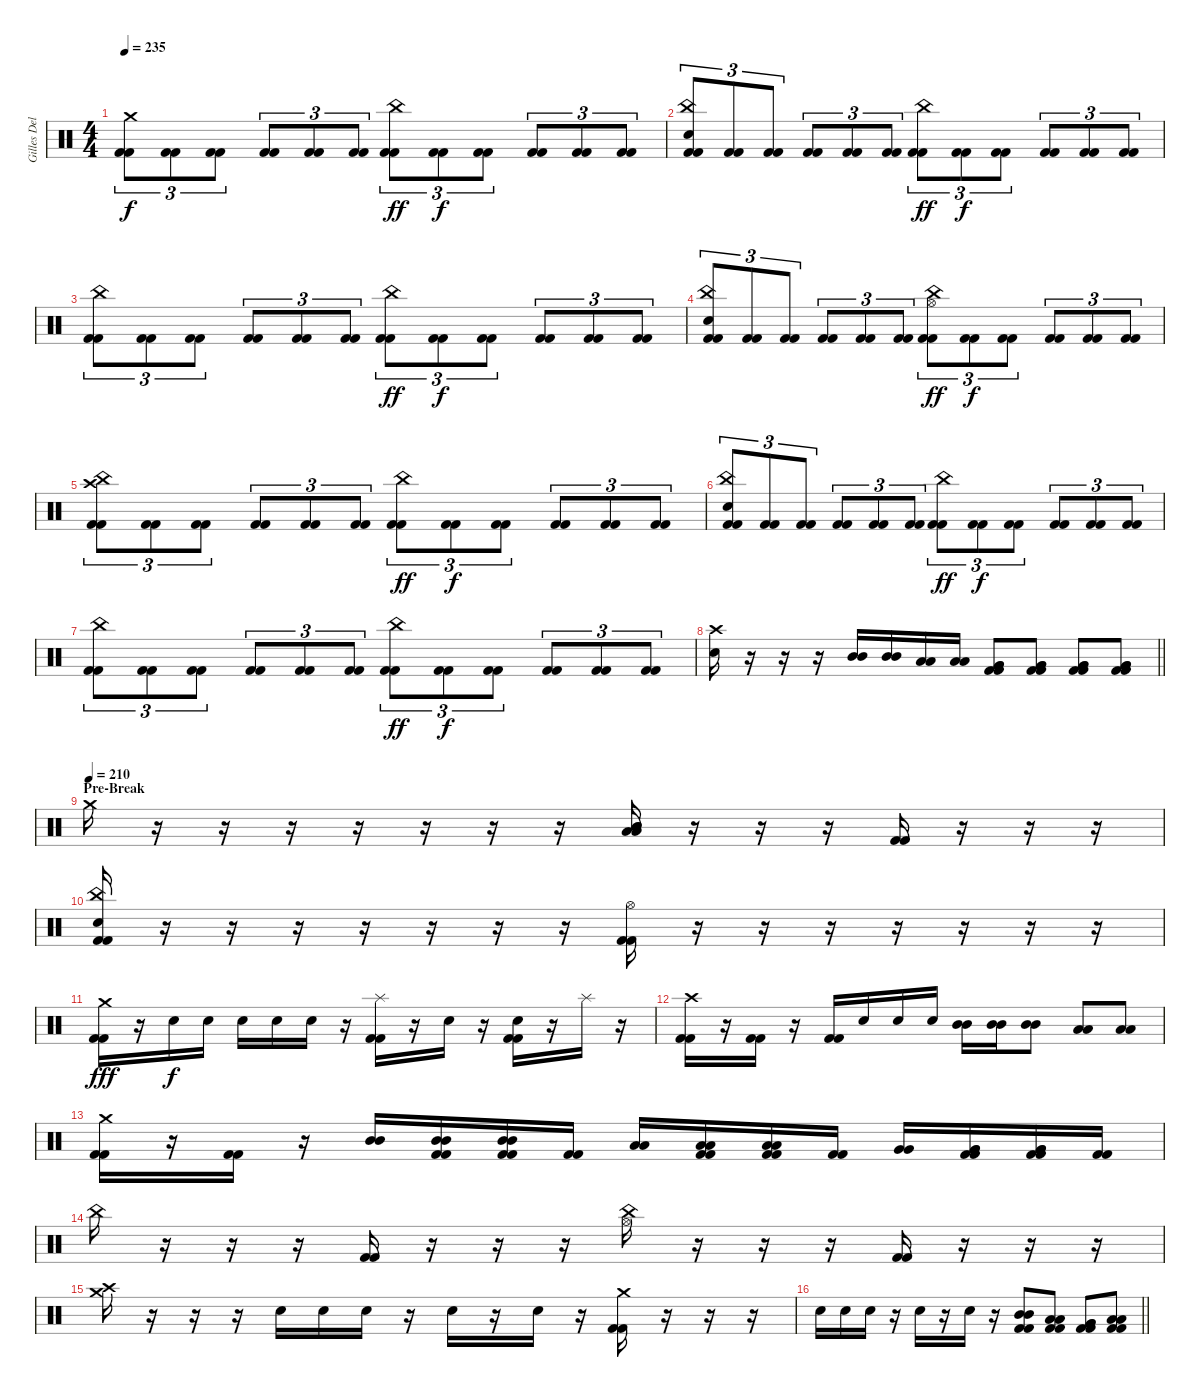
\track ("Gilles Delecroix" "Gilles Del") {instrument percussion}
\staff {score}
\articulation defaults
\ts (4 4)
\tempo 235
\clef neutral
\ks c
("Crash medium (hit)" "Kick (hit) 2" "Kick (hit) 2").8{tu (3 2) dy f} ("Kick (hit) 2" "Kick (hit) 2").8{tu (3 2)} ("Kick (hit) 2" "Kick (hit) 2").8{tu (3 2)} ("Kick (hit) 2" "Kick (hit) 2").8{tu (3 2)} ("Kick (hit) 2" "Kick (hit) 2").8{tu (3 2)} ("Kick (hit) 2" "Kick (hit) 2").8{tu (3 2)} ("China (hit)" "Kick (hit) 2" "Kick (hit) 2").8{tu (3 2) dy ff} ("Kick (hit) 2" "Kick (hit) 2").8{tu (3 2) dy f} ("Kick (hit) 2" "Kick (hit) 2").8{tu (3 2)} ("Kick (hit) 2" "Kick (hit) 2").8{tu (3 2)} ("Kick (hit) 2" "Kick (hit) 2").8{tu (3 2)} ("Kick (hit) 2" "Kick (hit) 2").8{tu (3 2)} |
("China (hit)" "Electric Snare (hit)" "Kick (hit) 2" "Kick (hit) 2").8{tu (3 2)} ("Kick (hit) 2" "Kick (hit) 2").8{tu (3 2)} ("Kick (hit) 2" "Kick (hit) 2").8{tu (3 2)} ("Kick (hit) 2" "Kick (hit) 2").8{tu (3 2)} ("Kick (hit) 2" "Kick (hit) 2").8{tu (3 2)} ("Kick (hit) 2" "Kick (hit) 2").8{tu (3 2)} ("China (hit)" "Kick (hit) 2" "Kick (hit) 2").8{tu (3 2) dy ff} ("Kick (hit) 2" "Kick (hit) 2").8{tu (3 2) dy f} ("Kick (hit) 2" "Kick (hit) 2").8{tu (3 2)} ("Kick (hit) 2" "Kick (hit) 2").8{tu (3 2)} ("Kick (hit) 2" "Kick (hit) 2").8{tu (3 2)} ("Kick (hit) 2" "Kick (hit) 2").8{tu (3 2)} |
("China (hit)" "Kick (hit) 2" "Kick (hit) 2").8{tu (3 2)} ("Kick (hit) 2" "Kick (hit) 2").8{tu (3 2)} ("Kick (hit) 2" "Kick (hit) 2").8{tu (3 2)} ("Kick (hit) 2" "Kick (hit) 2").8{tu (3 2)} ("Kick (hit) 2" "Kick (hit) 2").8{tu (3 2)} ("Kick (hit) 2" "Kick (hit) 2").8{tu (3 2)} ("China (hit)" "Kick (hit) 2" "Kick (hit) 2").8{tu (3 2) dy ff} ("Kick (hit) 2" "Kick (hit) 2").8{tu (3 2) dy f} ("Kick (hit) 2" "Kick (hit) 2").8{tu (3 2)} ("Kick (hit) 2" "Kick (hit) 2").8{tu (3 2)} ("Kick (hit) 2" "Kick (hit) 2").8{tu (3 2)} ("Kick (hit) 2" "Kick (hit) 2").8{tu (3 2)} |
("China (hit)" "Electric Snare (hit)" "Kick (hit) 2" "Kick (hit) 2").8{tu (3 2)} ("Kick (hit) 2" "Kick (hit) 2").8{tu (3 2)} ("Kick (hit) 2" "Kick (hit) 2").8{tu (3 2)} ("Kick (hit) 2" "Kick (hit) 2").8{tu (3 2)} ("Kick (hit) 2" "Kick (hit) 2").8{tu (3 2)} ("Kick (hit) 2" "Kick (hit) 2").8{tu (3 2)} ("Hi-Hat (open)" "China (hit)" "Kick (hit) 2" "Kick (hit) 2").8{tu (3 2) dy ff} ("Kick (hit) 2" "Kick (hit) 2").8{tu (3 2) dy f} ("Kick (hit) 2" "Kick (hit) 2").8{tu (3 2)} ("Kick (hit) 2" "Kick (hit) 2").8{tu (3 2)} ("Kick (hit) 2" "Kick (hit) 2").8{tu (3 2)} ("Kick (hit) 2" "Kick (hit) 2").8{tu (3 2)} |
("Crash high (hit)" "China (hit)" "Kick (hit) 2" "Kick (hit) 2").8{tu (3 2)} ("Kick (hit) 2" "Kick (hit) 2").8{tu (3 2)} ("Kick (hit) 2" "Kick (hit) 2").8{tu (3 2)} ("Kick (hit) 2" "Kick (hit) 2").8{tu (3 2)} ("Kick (hit) 2" "Kick (hit) 2").8{tu (3 2)} ("Kick (hit) 2" "Kick (hit) 2").8{tu (3 2)} ("China (hit)" "Kick (hit) 2" "Kick (hit) 2").8{tu (3 2) dy ff} ("Kick (hit) 2" "Kick (hit) 2").8{tu (3 2) dy f} ("Kick (hit) 2" "Kick (hit) 2").8{tu (3 2)} ("Kick (hit) 2" "Kick (hit) 2").8{tu (3 2)} ("Kick (hit) 2" "Kick (hit) 2").8{tu (3 2)} ("Kick (hit) 2" "Kick (hit) 2").8{tu (3 2)} |
("China (hit)" "Electric Snare (hit)" "Kick (hit) 2" "Kick (hit) 2").8{tu (3 2)} ("Kick (hit) 2" "Kick (hit) 2").8{tu (3 2)} ("Kick (hit) 2" "Kick (hit) 2").8{tu (3 2)} ("Kick (hit) 2" "Kick (hit) 2").8{tu (3 2)} ("Kick (hit) 2" "Kick (hit) 2").8{tu (3 2)} ("Kick (hit) 2" "Kick (hit) 2").8{tu (3 2)} ("China (hit)" "Kick (hit) 2" "Kick (hit) 2").8{tu (3 2) dy ff} ("Kick (hit) 2" "Kick (hit) 2").8{tu (3 2) dy f} ("Kick (hit) 2" "Kick (hit) 2").8{tu (3 2)} ("Kick (hit) 2" "Kick (hit) 2").8{tu (3 2)} ("Kick (hit) 2" "Kick (hit) 2").8{tu (3 2)} ("Kick (hit) 2" "Kick (hit) 2").8{tu (3 2)} |
("China (hit)" "Kick (hit) 2" "Kick (hit) 2").8{tu (3 2)} ("Kick (hit) 2" "Kick (hit) 2").8{tu (3 2)} ("Kick (hit) 2" "Kick (hit) 2").8{tu (3 2)} ("Kick (hit) 2" "Kick (hit) 2").8{tu (3 2)} ("Kick (hit) 2" "Kick (hit) 2").8{tu (3 2)} ("Kick (hit) 2" "Kick (hit) 2").8{tu (3 2)} ("China (hit)" "Kick (hit) 2" "Kick (hit) 2").8{tu (3 2) dy ff} ("Kick (hit) 2" "Kick (hit) 2").8{tu (3 2) dy f} ("Kick (hit) 2" "Kick (hit) 2").8{tu (3 2)} ("Kick (hit) 2" "Kick (hit) 2").8{tu (3 2)} ("Kick (hit) 2" "Kick (hit) 2").8{tu (3 2)} ("Kick (hit) 2" "Kick (hit) 2").8{tu (3 2)} |
\barLineRight lightlight
("Crash high (hit)" "Electric Snare (hit)").16 r.16 r.16 r.16 ("Mid Tom (hit)" "Mid Tom (hit)").16 ("Mid Tom (hit)" "Mid Tom (hit)").16 ("Low Tom (hit)" "Low Tom (hit)").16 ("Low Tom (hit)" "Low Tom (hit)").16 ("Very Low Tom (hit)" "Very Low Tom (hit)" "Kick (hit) 2" "Kick (hit) 2").8 ("Very Low Tom (hit)" "Very Low Tom (hit)" "Kick (hit) 2" "Kick (hit) 2").8 ("Very Low Tom (hit)" "Very Low Tom (hit)" "Kick (hit) 2" "Kick (hit) 2").8 ("Very Low Tom (hit)" "Very Low Tom (hit)" "Kick (hit) 2" "Kick (hit) 2").8 |
\section ("" "Pre-Break")
\tempo (210)
"Crash medium (hit)".16 r.16 r.16 r.16 r.16 r.16 r.16 r.16 ("Low Tom (hit)" "Low Tom (hit)" "Mid Tom (hit)" "Mid Tom (hit)").16 r.16 r.16 r.16 ("Kick (hit) 2" "Kick (hit) 2").16 r.16 r.16 r.16 |
("China (hit)" "Electric Snare (hit)" "Kick (hit) 2" "Kick (hit) 2").16 r.16 r.16 r.16 r.16 r.16 r.16 r.16 ("Hi-Hat (open)" "Kick (hit) 2" "Kick (hit) 2").16 r.16 r.16 r.16 r.16 r.16 r.16 r.16 |
("Crash medium (hit)" "Kick (hit) 2" "Kick (hit) 2").16{dy fff} r.16 "Electric Snare (hit)".16{dy f} "Electric Snare (hit)".16 "Electric Snare (hit)".16 "Electric Snare (hit)".16 "Electric Snare (hit)".16 r.16 ("Splash (hit)" "Kick (hit) 2" "Kick (hit) 2").16 r.16 "Electric Snare (hit)".16 r.16 ("Electric Snare (hit)" "Kick (hit) 2" "Kick (hit) 2").16 r.16 "Splash (hit)".16 r.16 |
("Crash high (hit)" "Kick (hit) 2" "Kick (hit) 2").16 r.16 ("Kick (hit) 2" "Kick (hit) 2").16 r.16 ("Kick (hit) 2" "Kick (hit) 2").16 "Electric Snare (hit)".16 "Electric Snare (hit)".16 "Electric Snare (hit)".16 ("Mid Tom (hit)" "Mid Tom (hit)").16 ("Mid Tom (hit)" "Mid Tom (hit)").16 ("Mid Tom (hit)" "Mid Tom (hit)").8 ("Low Tom (hit)" "Low Tom (hit)").8 ("Low Tom (hit)" "Low Tom (hit)").8 |
("Crash medium (hit)" "Kick (hit) 2" "Kick (hit) 2").16 r.16 ("Kick (hit) 2" "Kick (hit) 2").16 r.16 ("Mid Tom (hit)" "Mid Tom (hit)").16 ("Mid Tom (hit)" "Mid Tom (hit)" "Kick (hit) 2" "Kick (hit) 2").16 ("Mid Tom (hit)" "Mid Tom (hit)" "Kick (hit) 2" "Kick (hit) 2").16 ("Kick (hit) 2" "Kick (hit) 2").16 ("Low Tom (hit)" "Low Tom (hit)").16 ("Low Tom (hit)" "Low Tom (hit)" "Kick (hit) 2" "Kick (hit) 2").16 ("Low Tom (hit)" "Low Tom (hit)" "Kick (hit) 2" "Kick (hit) 2").16 ("Kick (hit) 2" "Kick (hit) 2").16 ("Very Low Tom (hit)" "Very Low Tom (hit)").16 ("Very Low Tom (hit)" "Very Low Tom (hit)" "Kick (hit) 2" "Kick (hit) 2").16 ("Very Low Tom (hit)" "Very Low Tom (hit)" "Kick (hit) 2" "Kick (hit) 2").16 ("Kick (hit) 2" "Kick (hit) 2").16 |
"China (hit)".16 r.16 r.16 r.16 ("Kick (hit) 2" "Kick (hit) 2").16 r.16 r.16 r.16 ("China (hit)" "Hi-Hat (open)").16 r.16 r.16 r.16 ("Kick (hit) 2" "Kick (hit) 2").16 r.16 r.16 r.16 |
("Crash medium (hit)" "Crash high (hit)").16 r.16 r.16 r.16 "Electric Snare (hit)".16 "Electric Snare (hit)".16 "Electric Snare (hit)".16 r.16 "Electric Snare (hit)".16 r.16 "Electric Snare (hit)".16 r.16 ("Crash medium (hit)" "Kick (hit) 2" "Kick (hit) 2").16 r.16 r.16 r.16 |
\barLineRight lightlight "Electric Snare (hit)".16 "Electric Snare (hit)".16 "Electric Snare (hit)".16
r.16 "Electric Snare (hit)".16 r.16 "Electric Snare (hit)".16 r.16 ("Mid Tom (hit)" "Mid Tom (hit)" "Kick (hit) 2" "Kick (hit) 2").8 ("Low Tom (hit)" "Low Tom (hit)" "Kick (hit) 2" "Kick (hit) 2").8 ("Very Low Tom (hit)" "Very Low Tom (hit)" "Kick (hit) 2" "Kick (hit) 2").8 ("Low Floor Tom (hit)" "Low Floor Tom (hit)" "Kick (hit) 2" "Kick (hit) 2").8
